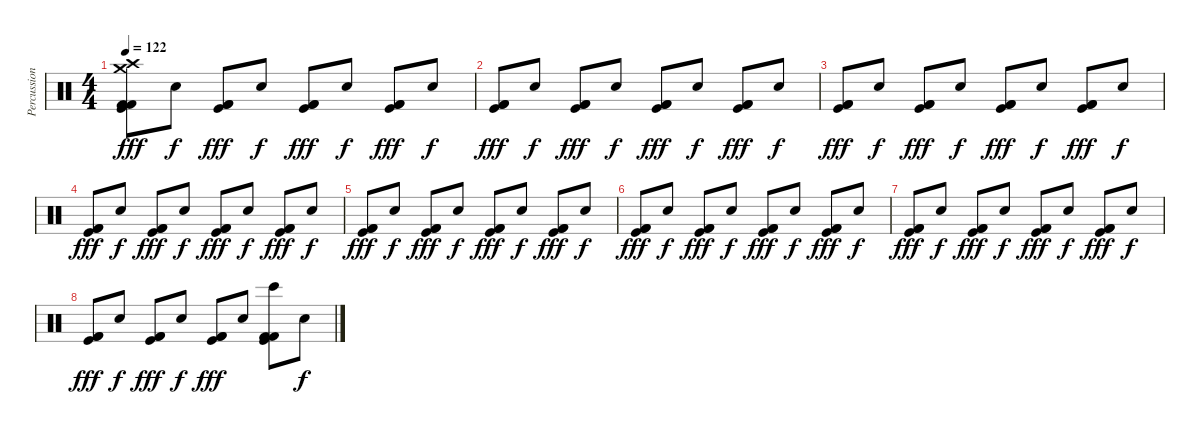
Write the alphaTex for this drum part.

\track ("Percussion" "Percussion") {instrument percussion}
\staff {score}
\articulation defaults
\ts (4 4)
\tempo 122
\clef neutral
\ks c
("Crash high (hit)" "Crash medium (hit)" "Kick (hit) 2" "Kick (hit)" "Kick (hit) 2").8{dy fff} "Hand Clap (hit)".8{dy f} ("Kick (hit) 2" "Kick (hit)" "Kick (hit) 2").8{dy fff} "Hand Clap (hit)".8{dy f} ("Kick (hit) 2" "Kick (hit)" "Kick (hit) 2").8{dy fff} "Hand Clap (hit)".8{dy f} ("Kick (hit) 2" "Kick (hit)" "Kick (hit) 2").8{dy fff} "Hand Clap (hit)".8{dy f} |
("Kick (hit) 2" "Kick (hit)" "Kick (hit) 2").8{dy fff} "Hand Clap (hit)".8{dy f} ("Kick (hit) 2" "Kick (hit)" "Kick (hit) 2").8{dy fff} "Hand Clap (hit)".8{dy f} ("Kick (hit) 2" "Kick (hit)" "Kick (hit) 2").8{dy fff} "Hand Clap (hit)".8{dy f} ("Kick (hit) 2" "Kick (hit)" "Kick (hit) 2").8{dy fff} "Hand Clap (hit)".8{dy f} |
("Kick (hit) 2" "Kick (hit)" "Kick (hit) 2").8{dy fff} "Hand Clap (hit)".8{dy f} ("Kick (hit) 2" "Kick (hit)" "Kick (hit) 2").8{dy fff} "Hand Clap (hit)".8{dy f} ("Kick (hit) 2" "Kick (hit)" "Kick (hit) 2").8{dy fff} "Hand Clap (hit)".8{dy f} ("Kick (hit) 2" "Kick (hit)" "Kick (hit) 2").8{dy fff} "Hand Clap (hit)".8{dy f} |
("Kick (hit) 2" "Kick (hit)" "Kick (hit) 2").8{dy fff} "Hand Clap (hit)".8{dy f} ("Kick (hit) 2" "Kick (hit)" "Kick (hit) 2").8{dy fff} "Hand Clap (hit)".8{dy f} ("Kick (hit) 2" "Kick (hit)" "Kick (hit) 2").8{dy fff} "Hand Clap (hit)".8{dy f} ("Kick (hit) 2" "Kick (hit)" "Kick (hit) 2").8{dy fff} "Hand Clap (hit)".8{dy f} |
("Kick (hit) 2" "Kick (hit)" "Kick (hit) 2").8{dy fff} "Hand Clap (hit)".8{dy f} ("Kick (hit) 2" "Kick (hit)" "Kick (hit) 2").8{dy fff} "Hand Clap (hit)".8{dy f} ("Kick (hit) 2" "Kick (hit)" "Kick (hit) 2").8{dy fff} "Hand Clap (hit)".8{dy f} ("Kick (hit) 2" "Kick (hit)" "Kick (hit) 2").8{dy fff} "Hand Clap (hit)".8{dy f} |
("Kick (hit) 2" "Kick (hit)" "Kick (hit) 2").8{dy fff} "Hand Clap (hit)".8{dy f} ("Kick (hit) 2" "Kick (hit)" "Kick (hit) 2").8{dy fff} "Hand Clap (hit)".8{dy f} ("Kick (hit) 2" "Kick (hit)" "Kick (hit) 2").8{dy fff} "Hand Clap (hit)".8{dy f} ("Kick (hit) 2" "Kick (hit)" "Kick (hit) 2").8{dy fff} "Hand Clap (hit)".8{dy f} |
("Kick (hit) 2" "Kick (hit)" "Kick (hit) 2").8{dy fff} "Hand Clap (hit)".8{dy f} ("Kick (hit) 2" "Kick (hit)" "Kick (hit) 2").8{dy fff} "Hand Clap (hit)".8{dy f} ("Kick (hit) 2" "Kick (hit)" "Kick (hit) 2").8{dy fff} "Hand Clap (hit)".8{dy f} ("Kick (hit) 2" "Kick (hit)" "Kick (hit) 2").8{dy fff} "Hand Clap (hit)".8{dy f} |
("Kick (hit) 2" "Kick (hit)" "Kick (hit) 2").8{dy fff} "Hand Clap (hit)".8{dy f} ("Kick (hit) 2" "Kick (hit)" "Kick (hit) 2").8{dy fff} "Hand Clap (hit)".8{dy f} ("Kick (hit) 2" "Kick (hit)" "Kick (hit) 2").8{dy fff} "Hand Clap (hit)".8 ("Bongo High (hit)" "Kick (hit) 2" "Kick (hit)" "Kick (hit) 2").8 "Hand Clap (hit)".8{dy f}
